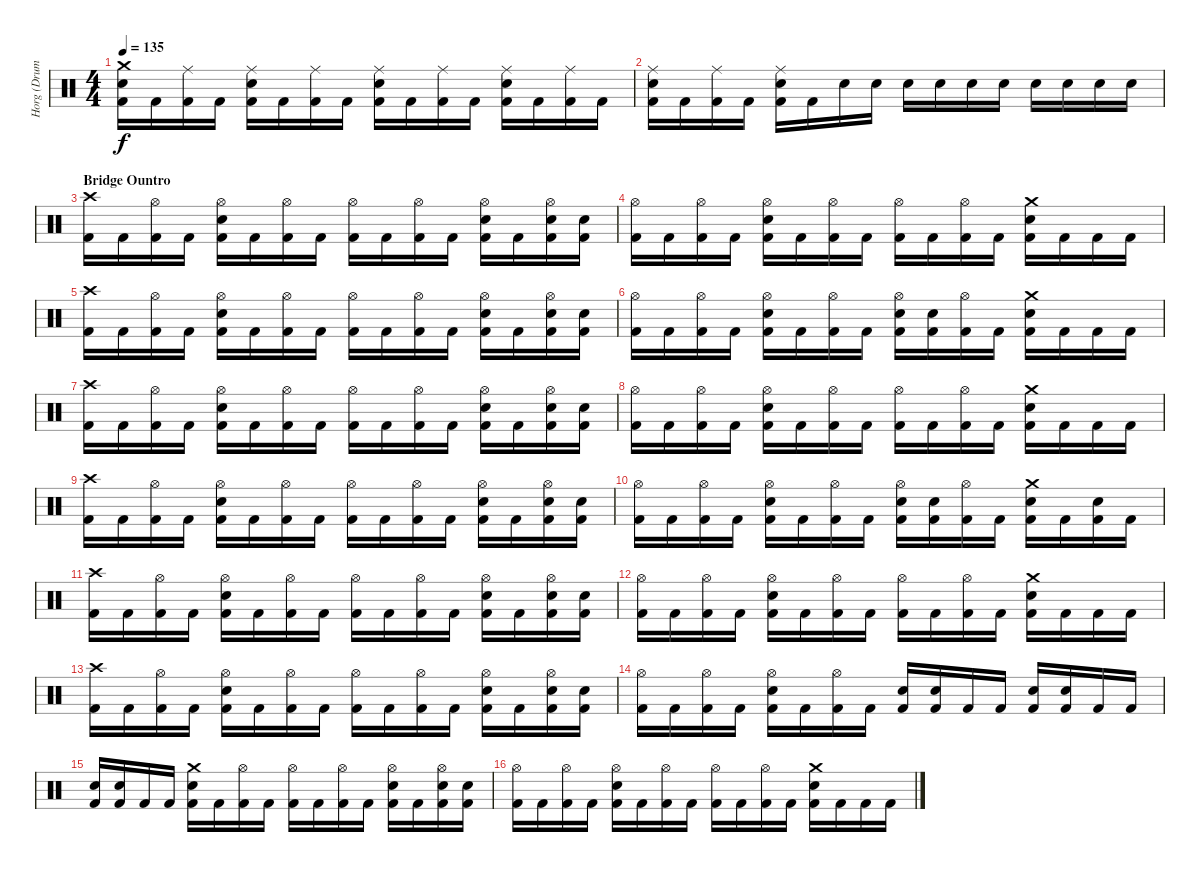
\track ("Horg (Drums)" "Horg (Drum") {instrument percussion}
\staff {score}
\articulation defaults
\ts (4 4)
\tempo 135
\clef neutral
\ks c
("Crash medium (hit)" "Electric Snare (hit)" "Kick (hit) 2").16{dy f} "Kick (hit) 2".16 ("Ride (middle)" "Kick (hit) 2").16 "Kick (hit) 2".16 ("Ride (middle)" "Electric Snare (hit)" "Kick (hit) 2").16 "Kick (hit) 2".16 ("Ride (middle)" "Kick (hit) 2").16 "Kick (hit) 2".16 ("Ride (middle)" "Electric Snare (hit)" "Kick (hit) 2").16 "Kick (hit) 2".16 ("Ride (middle)" "Kick (hit) 2").16 "Kick (hit) 2".16 ("Ride (middle)" "Electric Snare (hit)" "Kick (hit) 2").16 "Kick (hit) 2".16 ("Ride (middle)" "Kick (hit) 2").16 "Kick (hit) 2".16 |
("Ride (middle)" "Electric Snare (hit)" "Kick (hit) 2").16 "Kick (hit) 2".16 ("Ride (middle)" "Kick (hit) 2").16 "Kick (hit) 2".16 ("Ride (middle)" "Electric Snare (hit)" "Kick (hit) 2").16 "Kick (hit) 2".16 "Electric Snare (hit)".16 "Electric Snare (hit)".16 "Electric Snare (hit)".16 "Electric Snare (hit)".16 "Electric Snare (hit)".16 "Electric Snare (hit)".16 "Electric Snare (hit)".16 "Electric Snare (hit)".16 "Electric Snare (hit)".16 "Electric Snare (hit)".16 |
\section ("" "Bridge Ountro")
("Crash high (hit)" "Kick (hit) 2").16 "Kick (hit) 2".16 ("Hi-Hat (open)" "Kick (hit) 2").16 "Kick (hit) 2".16 ("Hi-Hat (open)" "Electric Snare (hit)" "Kick (hit) 2").16 "Kick (hit) 2".16 ("Hi-Hat (open)" "Kick (hit) 2").16 "Kick (hit) 2".16 ("Hi-Hat (open)" "Kick (hit) 2").16 "Kick (hit) 2".16 ("Hi-Hat (open)" "Kick (hit) 2").16 "Kick (hit) 2".16 ("Hi-Hat (open)" "Electric Snare (hit)" "Kick (hit) 2").16 "Kick (hit) 2".16 ("Hi-Hat (open)" "Electric Snare (hit)" "Kick (hit) 2").16 ("Electric Snare (hit)" "Kick (hit) 2").16 |
("Hi-Hat (open)" "Kick (hit) 2").16 "Kick (hit) 2".16 ("Hi-Hat (open)" "Kick (hit) 2").16 "Kick (hit) 2".16 ("Hi-Hat (open)" "Electric Snare (hit)" "Kick (hit) 2").16 "Kick (hit) 2".16 ("Hi-Hat (open)" "Kick (hit) 2").16 "Kick (hit) 2".16 ("Hi-Hat (open)" "Kick (hit) 2").16 "Kick (hit) 2".16 ("Hi-Hat (open)" "Kick (hit) 2").16 "Kick (hit) 2".16 ("Crash medium (hit)" "Electric Snare (hit)" "Kick (hit) 2").16 "Kick (hit) 2".16 "Kick (hit) 2".16 "Kick (hit) 2".16 |
("Crash high (hit)" "Kick (hit) 2").16 "Kick (hit) 2".16 ("Hi-Hat (open)" "Kick (hit) 2").16 "Kick (hit) 2".16 ("Hi-Hat (open)" "Electric Snare (hit)" "Kick (hit) 2").16 "Kick (hit) 2".16 ("Hi-Hat (open)" "Kick (hit) 2").16 "Kick (hit) 2".16 ("Hi-Hat (open)" "Kick (hit) 2").16 "Kick (hit) 2".16 ("Hi-Hat (open)" "Kick (hit) 2").16 "Kick (hit) 2".16 ("Hi-Hat (open)" "Electric Snare (hit)" "Kick (hit) 2").16 "Kick (hit) 2".16 ("Hi-Hat (open)" "Electric Snare (hit)" "Kick (hit) 2").16 ("Electric Snare (hit)" "Kick (hit) 2").16 |
("Hi-Hat (open)" "Kick (hit) 2").16 "Kick (hit) 2".16 ("Hi-Hat (open)" "Kick (hit) 2").16 "Kick (hit) 2".16 ("Hi-Hat (open)" "Electric Snare (hit)" "Kick (hit) 2").16 "Kick (hit) 2".16 ("Hi-Hat (open)" "Kick (hit) 2").16 "Kick (hit) 2".16 ("Hi-Hat (open)" "Electric Snare (hit)" "Kick (hit) 2").16 ("Electric Snare (hit)" "Kick (hit) 2").16 ("Hi-Hat (open)" "Kick (hit) 2").16 "Kick (hit) 2".16 ("Crash medium (hit)" "Electric Snare (hit)" "Kick (hit) 2").16 "Kick (hit) 2".16 "Kick (hit) 2".16 "Kick (hit) 2".16 |
("Crash high (hit)" "Kick (hit) 2").16 "Kick (hit) 2".16 ("Hi-Hat (open)" "Kick (hit) 2").16 "Kick (hit) 2".16 ("Hi-Hat (open)" "Electric Snare (hit)" "Kick (hit) 2").16 "Kick (hit) 2".16 ("Hi-Hat (open)" "Kick (hit) 2").16 "Kick (hit) 2".16 ("Hi-Hat (open)" "Kick (hit) 2").16 "Kick (hit) 2".16 ("Hi-Hat (open)" "Kick (hit) 2").16 "Kick (hit) 2".16 ("Hi-Hat (open)" "Electric Snare (hit)" "Kick (hit) 2").16 "Kick (hit) 2".16 ("Hi-Hat (open)" "Electric Snare (hit)" "Kick (hit) 2").16 ("Electric Snare (hit)" "Kick (hit) 2").16 |
("Hi-Hat (open)" "Kick (hit) 2").16 "Kick (hit) 2".16 ("Hi-Hat (open)" "Kick (hit) 2").16 "Kick (hit) 2".16 ("Hi-Hat (open)" "Electric Snare (hit)" "Kick (hit) 2").16 "Kick (hit) 2".16 ("Hi-Hat (open)" "Kick (hit) 2").16 "Kick (hit) 2".16 ("Hi-Hat (open)" "Kick (hit) 2").16 "Kick (hit) 2".16 ("Hi-Hat (open)" "Kick (hit) 2").16 "Kick (hit) 2".16 ("Crash medium (hit)" "Electric Snare (hit)" "Kick (hit) 2").16 "Kick (hit) 2".16 "Kick (hit) 2".16 "Kick (hit) 2".16 |
("Crash high (hit)" "Kick (hit) 2").16 "Kick (hit) 2".16 ("Hi-Hat (open)" "Kick (hit) 2").16 "Kick (hit) 2".16 ("Hi-Hat (open)" "Electric Snare (hit)" "Kick (hit) 2").16 "Kick (hit) 2".16 ("Hi-Hat (open)" "Kick (hit) 2").16 "Kick (hit) 2".16 ("Hi-Hat (open)" "Kick (hit) 2").16 "Kick (hit) 2".16 ("Hi-Hat (open)" "Kick (hit) 2").16 "Kick (hit) 2".16 ("Hi-Hat (open)" "Electric Snare (hit)" "Kick (hit) 2").16 "Kick (hit) 2".16 ("Hi-Hat (open)" "Electric Snare (hit)" "Kick (hit) 2").16 ("Electric Snare (hit)" "Kick (hit) 2").16 |
("Hi-Hat (open)" "Kick (hit) 2").16 "Kick (hit) 2".16 ("Hi-Hat (open)" "Kick (hit) 2").16 "Kick (hit) 2".16 ("Hi-Hat (open)" "Electric Snare (hit)" "Kick (hit) 2").16 "Kick (hit) 2".16 ("Hi-Hat (open)" "Kick (hit) 2").16 "Kick (hit) 2".16 ("Hi-Hat (open)" "Electric Snare (hit)" "Kick (hit) 2").16 ("Electric Snare (hit)" "Kick (hit) 2").16 ("Hi-Hat (open)" "Kick (hit) 2").16 "Kick (hit) 2".16 ("Crash medium (hit)" "Electric Snare (hit)" "Kick (hit) 2").16 "Kick (hit) 2".16 ("Electric Snare (hit)" "Kick (hit) 2").16 "Kick (hit) 2".16 |
("Crash high (hit)" "Kick (hit) 2").16 "Kick (hit) 2".16 ("Hi-Hat (open)" "Kick (hit) 2").16 "Kick (hit) 2".16 ("Hi-Hat (open)" "Electric Snare (hit)" "Kick (hit) 2").16 "Kick (hit) 2".16 ("Hi-Hat (open)" "Kick (hit) 2").16 "Kick (hit) 2".16 ("Hi-Hat (open)" "Kick (hit) 2").16 "Kick (hit) 2".16 ("Hi-Hat (open)" "Kick (hit) 2").16 "Kick (hit) 2".16 ("Hi-Hat (open)" "Electric Snare (hit)" "Kick (hit) 2").16 "Kick (hit) 2".16 ("Hi-Hat (open)" "Electric Snare (hit)" "Kick (hit) 2").16 ("Electric Snare (hit)" "Kick (hit) 2").16 |
("Hi-Hat (open)" "Kick (hit) 2").16 "Kick (hit) 2".16 ("Hi-Hat (open)" "Kick (hit) 2").16 "Kick (hit) 2".16 ("Hi-Hat (open)" "Electric Snare (hit)" "Kick (hit) 2").16 "Kick (hit) 2".16 ("Hi-Hat (open)" "Kick (hit) 2").16 "Kick (hit) 2".16 ("Hi-Hat (open)" "Kick (hit) 2").16 "Kick (hit) 2".16 ("Hi-Hat (open)" "Kick (hit) 2").16 "Kick (hit) 2".16 ("Crash medium (hit)" "Electric Snare (hit)" "Kick (hit) 2").16 "Kick (hit) 2".16 "Kick (hit) 2".16 "Kick (hit) 2".16 |
("Crash high (hit)" "Kick (hit) 2").16 "Kick (hit) 2".16 ("Hi-Hat (open)" "Kick (hit) 2").16 "Kick (hit) 2".16 ("Hi-Hat (open)" "Electric Snare (hit)" "Kick (hit) 2").16 "Kick (hit) 2".16 ("Hi-Hat (open)" "Kick (hit) 2").16 "Kick (hit) 2".16 ("Hi-Hat (open)" "Kick (hit) 2").16 "Kick (hit) 2".16 ("Hi-Hat (open)" "Kick (hit) 2").16 "Kick (hit) 2".16 ("Hi-Hat (open)" "Electric Snare (hit)" "Kick (hit) 2").16 "Kick (hit) 2".16 ("Hi-Hat (open)" "Electric Snare (hit)" "Kick (hit) 2").16 ("Electric Snare (hit)" "Kick (hit) 2").16 |
("Hi-Hat (open)" "Kick (hit) 2").16 "Kick (hit) 2".16 ("Hi-Hat (open)" "Kick (hit) 2").16 "Kick (hit) 2".16 ("Hi-Hat (open)" "Electric Snare (hit)" "Kick (hit) 2").16 "Kick (hit) 2".16 ("Hi-Hat (open)" "Kick (hit) 2").16 "Kick (hit) 2".16 ("Electric Snare (hit)" "Kick (hit) 2").16 ("Electric Snare (hit)" "Kick (hit) 2").16 "Kick (hit) 2".16 "Kick (hit) 2".16 ("Electric Snare (hit)" "Kick (hit) 2").16 ("Electric Snare (hit)" "Kick (hit) 2").16 "Kick (hit) 2".16 "Kick (hit) 2".16 |
("Electric Snare (hit)" "Kick (hit) 2").16 ("Electric Snare (hit)" "Kick (hit) 2").16 "Kick (hit) 2".16 "Kick (hit) 2".16 ("Crash medium (hit)" "Electric Snare (hit)" "Kick (hit) 2").16 "Kick (hit) 2".16 ("Hi-Hat (open)" "Kick (hit) 2").16 "Kick (hit) 2".16 ("Hi-Hat (open)" "Kick (hit) 2").16 "Kick (hit) 2".16 ("Hi-Hat (open)" "Kick (hit) 2").16 "Kick (hit) 2".16 ("Hi-Hat (open)" "Electric Snare (hit)" "Kick (hit) 2").16 "Kick (hit) 2".16 ("Hi-Hat (open)" "Electric Snare (hit)" "Kick (hit) 2").16 ("Electric Snare (hit)" "Kick (hit) 2").16 |
("Hi-Hat (open)" "Kick (hit) 2").16 "Kick (hit) 2".16 ("Hi-Hat (open)" "Kick (hit) 2").16 "Kick (hit) 2".16 ("Hi-Hat (open)" "Electric Snare (hit)" "Kick (hit) 2").16 "Kick (hit) 2".16 ("Hi-Hat (open)" "Kick (hit) 2").16 "Kick (hit) 2".16 ("Hi-Hat (open)" "Kick (hit) 2").16 "Kick (hit) 2".16 ("Hi-Hat (open)" "Kick (hit) 2").16 "Kick (hit) 2".16 ("Crash medium (hit)" "Electric Snare (hit)" "Kick (hit) 2").16 "Kick (hit) 2".16 "Kick (hit) 2".16 "Kick (hit) 2".16
